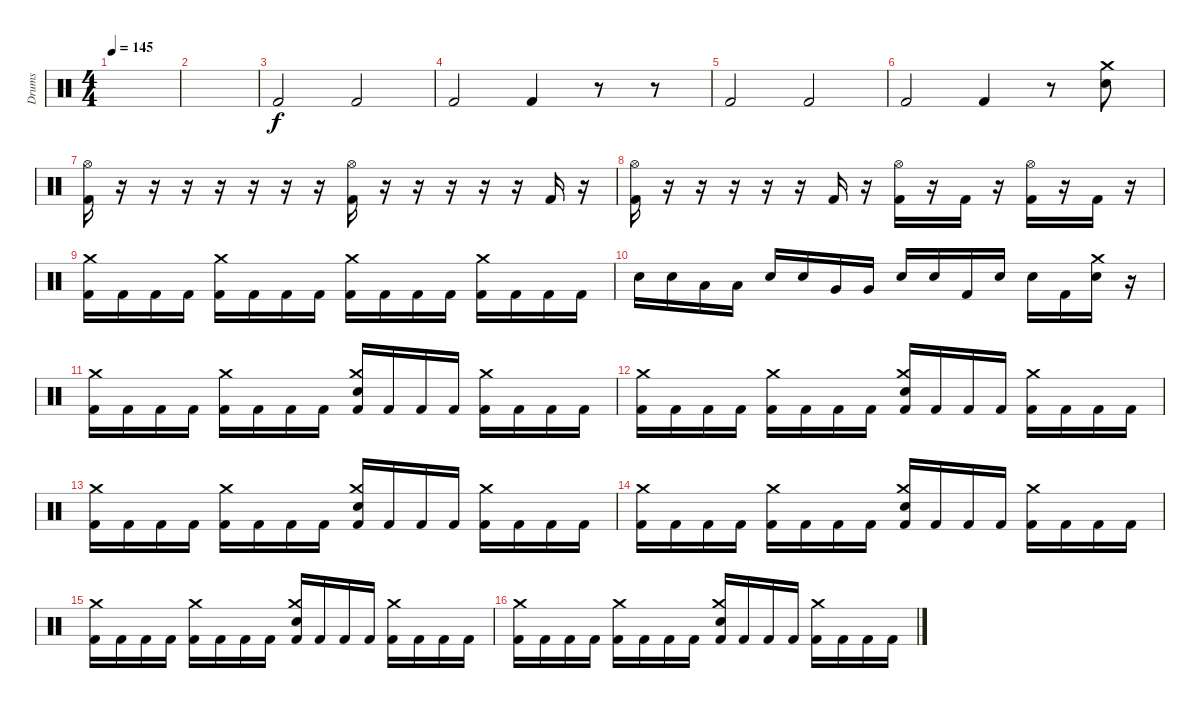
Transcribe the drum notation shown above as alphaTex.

\track ("Drums" "Drums") {instrument percussion}
\staff {score}
\articulation defaults
\ts (4 4)
\tempo 145
\clef neutral
\ks c
|
|
"Kick (hit) 2".2 "Kick (hit) 2".2 |
"Kick (hit) 2".2 "Kick (hit) 2".4 r.8 r.8 |
"Kick (hit) 2".2 "Kick (hit) 2".2 |
"Kick (hit) 2".2 "Kick (hit) 2".4 r.8 ("Crash medium (hit)" "Snare (hit) 2").8 |
("Hi-Hat (open)" "Kick (hit) 2").16 r.16 r.16 r.16 r.16 r.16 r.16 r.16 ("Hi-Hat (open)" "Kick (hit) 2").16 r.16 r.16 r.16 r.16 r.16 "Kick (hit) 2".16 r.16 |
("Hi-Hat (open)" "Kick (hit) 2").16 r.16 r.16 r.16 r.16 r.16 "Kick (hit) 2".16 r.16 ("Hi-Hat (open)" "Kick (hit) 2").16 r.16 "Kick (hit) 2".16 r.16 ("Hi-Hat (open)" "Kick (hit) 2").16 r.16 "Kick (hit) 2".16 r.16 |
("Crash medium (hit)" "Kick (hit) 2").16 "Kick (hit) 2".16 "Kick (hit) 2".16 "Kick (hit) 2".16 ("Crash medium (hit)" "Kick (hit) 2").16 "Kick (hit) 2".16 "Kick (hit) 2".16 "Kick (hit) 2".16 ("Crash medium (hit)" "Kick (hit) 2").16 "Kick (hit) 2".16 "Kick (hit) 2".16 "Kick (hit) 2".16 ("Crash medium (hit)" "Kick (hit) 2").16 "Kick (hit) 2".16 "Kick (hit) 2".16 "Kick (hit) 2".16 |
"Snare (hit) 2".16 "Snare (hit) 2".16 "Low Tom (hit)".16 "Low Tom (hit)".16 "Snare (hit) 2".16 "Snare (hit) 2".16 "Very Low Tom (hit)".16 "Very Low Tom (hit)".16 "Snare (hit) 2".16 "Snare (hit) 2".16 "Kick (hit) 2".16 "Snare (hit) 2".16 "Snare (hit) 2".16 "Kick (hit) 2".16 ("Crash medium (hit)" "Snare (hit) 2").16 r.16 |
("Crash medium (hit)" "Kick (hit) 2").16 "Kick (hit) 2".16 "Kick (hit) 2".16 "Kick (hit) 2".16 ("Crash medium (hit)" "Kick (hit) 2").16 "Kick (hit) 2".16 "Kick (hit) 2".16 "Kick (hit) 2".16 ("Crash medium (hit)" "Snare (hit) 2" "Kick (hit) 2").16 "Kick (hit) 2".16 "Kick (hit) 2".16 "Kick (hit) 2".16 ("Crash medium (hit)" "Kick (hit) 2").16 "Kick (hit) 2".16 "Kick (hit) 2".16 "Kick (hit) 2".16 |
("Crash medium (hit)" "Kick (hit) 2").16 "Kick (hit) 2".16 "Kick (hit) 2".16 "Kick (hit) 2".16 ("Crash medium (hit)" "Kick (hit) 2").16 "Kick (hit) 2".16 "Kick (hit) 2".16 "Kick (hit) 2".16 ("Crash medium (hit)" "Snare (hit) 2" "Kick (hit) 2").16 "Kick (hit) 2".16 "Kick (hit) 2".16 "Kick (hit) 2".16 ("Crash medium (hit)" "Kick (hit) 2").16 "Kick (hit) 2".16 "Kick (hit) 2".16 "Kick (hit) 2".16 |
("Crash medium (hit)" "Kick (hit) 2").16 "Kick (hit) 2".16 "Kick (hit) 2".16 "Kick (hit) 2".16 ("Crash medium (hit)" "Kick (hit) 2").16 "Kick (hit) 2".16 "Kick (hit) 2".16 "Kick (hit) 2".16 ("Crash medium (hit)" "Snare (hit) 2" "Kick (hit) 2").16 "Kick (hit) 2".16 "Kick (hit) 2".16 "Kick (hit) 2".16 ("Crash medium (hit)" "Kick (hit) 2").16 "Kick (hit) 2".16 "Kick (hit) 2".16 "Kick (hit) 2".16 |
("Crash medium (hit)" "Kick (hit) 2").16 "Kick (hit) 2".16 "Kick (hit) 2".16 "Kick (hit) 2".16 ("Crash medium (hit)" "Kick (hit) 2").16 "Kick (hit) 2".16 "Kick (hit) 2".16 "Kick (hit) 2".16 ("Crash medium (hit)" "Snare (hit) 2" "Kick (hit) 2").16 "Kick (hit) 2".16 "Kick (hit) 2".16 "Kick (hit) 2".16 ("Crash medium (hit)" "Kick (hit) 2").16 "Kick (hit) 2".16 "Kick (hit) 2".16 "Kick (hit) 2".16 |
("Crash medium (hit)" "Kick (hit) 2").16 "Kick (hit) 2".16 "Kick (hit) 2".16 "Kick (hit) 2".16 ("Crash medium (hit)" "Kick (hit) 2").16 "Kick (hit) 2".16 "Kick (hit) 2".16 "Kick (hit) 2".16 ("Crash medium (hit)" "Snare (hit) 2" "Kick (hit) 2").16 "Kick (hit) 2".16 "Kick (hit) 2".16 "Kick (hit) 2".16 ("Crash medium (hit)" "Kick (hit) 2").16 "Kick (hit) 2".16 "Kick (hit) 2".16 "Kick (hit) 2".16 |
("Crash medium (hit)" "Kick (hit) 2").16 "Kick (hit) 2".16 "Kick (hit) 2".16 "Kick (hit) 2".16 ("Crash medium (hit)" "Kick (hit) 2").16 "Kick (hit) 2".16 "Kick (hit) 2".16 "Kick (hit) 2".16 ("Crash medium (hit)" "Snare (hit) 2" "Kick (hit) 2").16 "Kick (hit) 2".16 "Kick (hit) 2".16 "Kick (hit) 2".16 ("Crash medium (hit)" "Kick (hit) 2").16 "Kick (hit) 2".16 "Kick (hit) 2".16 "Kick (hit) 2".16
